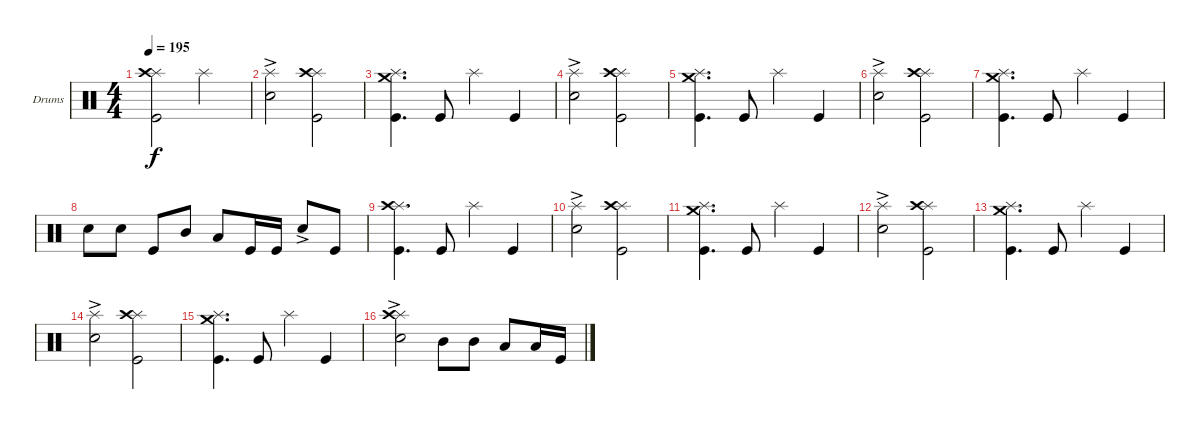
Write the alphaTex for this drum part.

\defaultSystemsLayout 4
\bracketExtendMode groupsimilarinstruments
\firstSystemTrackNameOrientation horizontal
\otherSystemsTrackNameOrientation horizontal
\track ("Drumkit" "Drums") {instrument percussion}
\staff {score}
\articulation defaults
\ts (4 4)
\tempo 195
\clef neutral
\ks c
("Kick (hit)" "Splash (hit)" "Crash high (hit)").2{dy f} "Splash (hit)".2 |
("Splash (hit)" "Snare (hit) 2"{ac}).2 ("Kick (hit)" "Splash (hit)" "Crash high (hit)").2 |
("Kick (hit)" "Splash (hit)" "Crash medium (hit)").4{d} "Kick (hit)".8 "Splash (hit)".4 "Kick (hit)".4 |
("Splash (hit)" "Snare (hit) 2"{ac}).2 ("Splash (hit)" "Kick (hit)" "Crash high (hit)").2 |
("Kick (hit)" "Splash (hit)" "Crash medium (hit)").4{d} "Kick (hit)".8 "Splash (hit)".4 "Kick (hit)".4 |
("Splash (hit)" "Snare (hit) 2"{ac}).2 ("Kick (hit)" "Splash (hit)" "Crash high (hit)").2 |
("Kick (hit)" "Splash (hit)" "Crash medium (hit)").4{d} "Kick (hit)".8 "Splash (hit)".4 "Kick (hit)".4 |
"Snare (hit) 2".8 "Snare (hit) 2".8 "Kick (hit)".8 "Mid Tom (hit)".8 "Low Tom (hit)".8 "Kick (hit)".16 "Kick (hit)".16 "Snare (hit) 2"{ac}.8 "Kick (hit)".8 |
("Kick (hit)" "Splash (hit)" "Crash high (hit)").4{d} "Kick (hit)".8 "Splash (hit)".4 "Kick (hit)".4 |
("Splash (hit)" "Snare (hit) 2"{ac}).2 ("Kick (hit)" "Splash (hit)" "Crash high (hit)").2 |
("Kick (hit)" "Splash (hit)" "Crash medium (hit)").4{d} "Kick (hit)".8 "Splash (hit)".4 "Kick (hit)".4 |
("Splash (hit)" "Snare (hit) 2"{ac}).2 ("Kick (hit)" "Splash (hit)" "Crash high (hit)").2 |
("Kick (hit)" "Splash (hit)" "Crash medium (hit)").4{d} "Kick (hit)".8 "Splash (hit)".4 "Kick (hit)".4 |
("Splash (hit)" "Snare (hit) 2"{ac}).2 ("Kick (hit)" "Splash (hit)" "Crash high (hit)").2 |
("Kick (hit)" "Splash (hit)" "Crash medium (hit)").4{d} "Kick (hit)".8 "Splash (hit)".4 "Kick (hit)".4 |
("Splash (hit)" "Snare (hit) 2"{ac} "Crash high (hit)").2 "Mid Tom (hit)".8 "Mid Tom (hit)".8 "Low Tom (hit)".8 "Low Tom (hit)".16 "Kick (hit)".16
